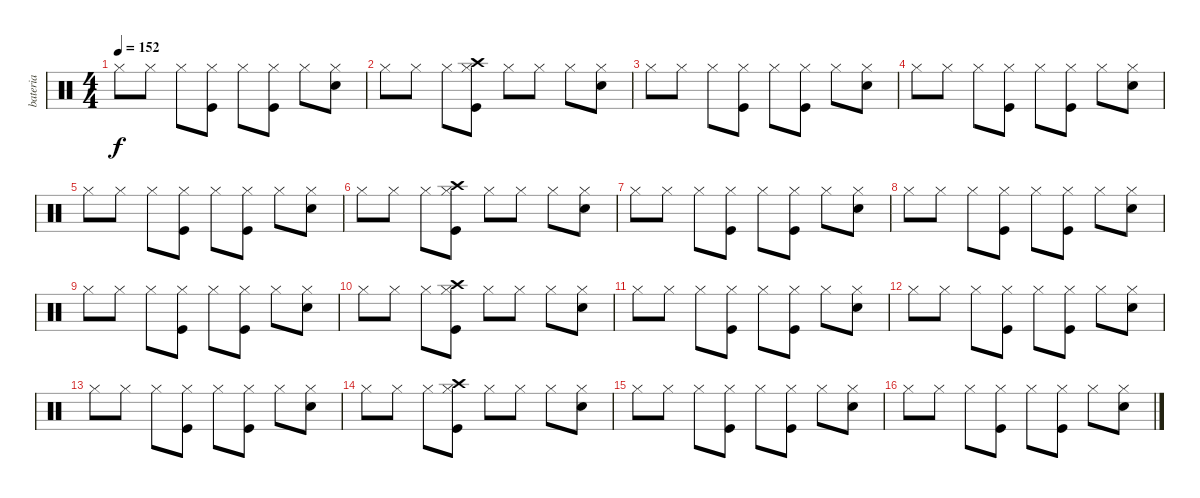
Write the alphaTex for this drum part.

\track ("bateria" "bateria") {instrument percussion}
\staff {score}
\articulation defaults
\ts (4 4)
\tempo 152
\clef neutral
\ks c "Hi-Hat (closed)".8{dy f} "Hi-Hat (closed)".8 "Hi-Hat (closed)".8
("Hi-Hat (closed)" "Kick (hit)").8 "Hi-Hat (closed)".8 ("Hi-Hat (closed)" "Kick (hit)").8 "Hi-Hat (closed)".8 ("Hi-Hat (closed)" "Electric Snare (hit)").8 |
"Hi-Hat (closed)".8 "Hi-Hat (closed)".8 "Hi-Hat (closed)".8 ("Hi-Hat (closed)" "Kick (hit)" "Crash high (hit)").8 "Hi-Hat (closed)".8 "Hi-Hat (closed)".8 "Hi-Hat (closed)".8 ("Hi-Hat (closed)" "Electric Snare (hit)").8 |
"Hi-Hat (closed)".8 "Hi-Hat (closed)".8 "Hi-Hat (closed)".8 ("Hi-Hat (closed)" "Kick (hit)").8 "Hi-Hat (closed)".8 ("Hi-Hat (closed)" "Kick (hit)").8 "Hi-Hat (closed)".8 ("Hi-Hat (closed)" "Electric Snare (hit)").8 |
"Hi-Hat (closed)".8 "Hi-Hat (closed)".8 "Hi-Hat (closed)".8 ("Hi-Hat (closed)" "Kick (hit)").8 "Hi-Hat (closed)".8 ("Hi-Hat (closed)" "Kick (hit)").8 "Hi-Hat (closed)".8 ("Hi-Hat (closed)" "Electric Snare (hit)").8 |
"Hi-Hat (closed)".8 "Hi-Hat (closed)".8 "Hi-Hat (closed)".8 ("Hi-Hat (closed)" "Kick (hit)").8 "Hi-Hat (closed)".8 ("Hi-Hat (closed)" "Kick (hit)").8 "Hi-Hat (closed)".8 ("Hi-Hat (closed)" "Electric Snare (hit)").8 |
"Hi-Hat (closed)".8 "Hi-Hat (closed)".8 "Hi-Hat (closed)".8 ("Hi-Hat (closed)" "Kick (hit)" "Crash high (hit)").8 "Hi-Hat (closed)".8 "Hi-Hat (closed)".8 "Hi-Hat (closed)".8 ("Hi-Hat (closed)" "Electric Snare (hit)").8 |
"Hi-Hat (closed)".8 "Hi-Hat (closed)".8 "Hi-Hat (closed)".8 ("Hi-Hat (closed)" "Kick (hit)").8 "Hi-Hat (closed)".8 ("Hi-Hat (closed)" "Kick (hit)").8 "Hi-Hat (closed)".8 ("Hi-Hat (closed)" "Electric Snare (hit)").8 |
"Hi-Hat (closed)".8 "Hi-Hat (closed)".8 "Hi-Hat (closed)".8 ("Hi-Hat (closed)" "Kick (hit)").8 "Hi-Hat (closed)".8 ("Hi-Hat (closed)" "Kick (hit)").8 "Hi-Hat (closed)".8 ("Hi-Hat (closed)" "Electric Snare (hit)").8 |
"Hi-Hat (closed)".8 "Hi-Hat (closed)".8 "Hi-Hat (closed)".8 ("Hi-Hat (closed)" "Kick (hit)").8 "Hi-Hat (closed)".8 ("Hi-Hat (closed)" "Kick (hit)").8 "Hi-Hat (closed)".8 ("Hi-Hat (closed)" "Electric Snare (hit)").8 |
"Hi-Hat (closed)".8 "Hi-Hat (closed)".8 "Hi-Hat (closed)".8 ("Hi-Hat (closed)" "Kick (hit)" "Crash high (hit)").8 "Hi-Hat (closed)".8 "Hi-Hat (closed)".8 "Hi-Hat (closed)".8 ("Hi-Hat (closed)" "Electric Snare (hit)").8 |
"Hi-Hat (closed)".8 "Hi-Hat (closed)".8 "Hi-Hat (closed)".8 ("Hi-Hat (closed)" "Kick (hit)").8 "Hi-Hat (closed)".8 ("Hi-Hat (closed)" "Kick (hit)").8 "Hi-Hat (closed)".8 ("Hi-Hat (closed)" "Electric Snare (hit)").8 |
"Hi-Hat (closed)".8 "Hi-Hat (closed)".8 "Hi-Hat (closed)".8 ("Hi-Hat (closed)" "Kick (hit)").8 "Hi-Hat (closed)".8 ("Hi-Hat (closed)" "Kick (hit)").8 "Hi-Hat (closed)".8 ("Hi-Hat (closed)" "Electric Snare (hit)").8 |
"Hi-Hat (closed)".8 "Hi-Hat (closed)".8 "Hi-Hat (closed)".8 ("Hi-Hat (closed)" "Kick (hit)").8 "Hi-Hat (closed)".8 ("Hi-Hat (closed)" "Kick (hit)").8 "Hi-Hat (closed)".8 ("Hi-Hat (closed)" "Electric Snare (hit)").8 |
"Hi-Hat (closed)".8 "Hi-Hat (closed)".8 "Hi-Hat (closed)".8 ("Hi-Hat (closed)" "Kick (hit)" "Crash high (hit)").8 "Hi-Hat (closed)".8 "Hi-Hat (closed)".8 "Hi-Hat (closed)".8 ("Hi-Hat (closed)" "Electric Snare (hit)").8 |
"Hi-Hat (closed)".8 "Hi-Hat (closed)".8 "Hi-Hat (closed)".8 ("Hi-Hat (closed)" "Kick (hit)").8 "Hi-Hat (closed)".8 ("Hi-Hat (closed)" "Kick (hit)").8 "Hi-Hat (closed)".8 ("Hi-Hat (closed)" "Electric Snare (hit)").8 |
"Hi-Hat (closed)".8 "Hi-Hat (closed)".8 "Hi-Hat (closed)".8 ("Hi-Hat (closed)" "Kick (hit)").8 "Hi-Hat (closed)".8 ("Hi-Hat (closed)" "Kick (hit)").8 "Hi-Hat (closed)".8 ("Hi-Hat (closed)" "Electric Snare (hit)").8
